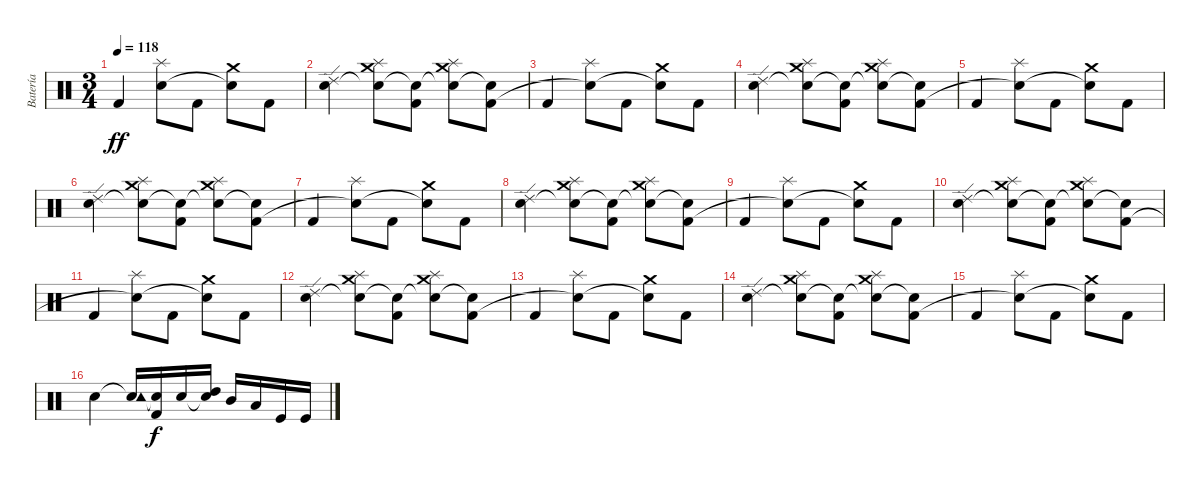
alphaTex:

\track ("Batería" "Batería") {instrument percussion}
\staff {score}
\articulation defaults
\ts (3 4)
\tempo 118
\clef neutral
\ks c "Kick (hit) 2".4{dy ff volume 16}
("Splash (hit)" "Snare (hit)"{t}).8 "Kick (hit) 2".8 ("Crash medium (hit)" "Snare (hit)"{t}).8 "Kick (hit) 2".8 |
("Snare (hit) 2" "Ride (edge) 2").4 ("Snare (hit)"{t} "Splash (hit)" "Crash medium (hit)").8 ("Snare (hit)"{t} "Kick (hit) 2").8 ("Snare (hit)"{t} "Crash medium (hit)" "Splash (hit)").8 ("Snare (hit)"{t} "Kick (hit) 2").8 |
"Kick (hit) 2".4{volume 16} ("Splash (hit)" "Snare (hit)"{t}).8 "Kick (hit) 2".8 ("Crash medium (hit)" "Snare (hit)"{t}).8 "Kick (hit) 2".8 |
("Snare (hit) 2" "Ride (edge) 2").4 ("Snare (hit)"{t} "Splash (hit)" "Crash medium (hit)").8 ("Snare (hit)"{t} "Kick (hit) 2").8 ("Snare (hit)"{t} "Crash medium (hit)" "Splash (hit)").8 ("Snare (hit)"{t} "Kick (hit) 2").8 |
"Kick (hit) 2".4{volume 16} ("Splash (hit)" "Snare (hit)"{t}).8 "Kick (hit) 2".8 ("Crash medium (hit)" "Snare (hit)"{t}).8 "Kick (hit) 2".8 |
("Snare (hit) 2" "Ride (edge) 2").4 ("Snare (hit)"{t} "Splash (hit)" "Crash medium (hit)").8 ("Snare (hit)"{t} "Kick (hit) 2").8 ("Snare (hit)"{t} "Crash medium (hit)" "Splash (hit)").8 ("Snare (hit)"{t} "Kick (hit) 2").8 |
"Kick (hit) 2".4{volume 16} ("Splash (hit)" "Snare (hit)"{t}).8 "Kick (hit) 2".8 ("Crash medium (hit)" "Snare (hit)"{t}).8 "Kick (hit) 2".8 |
("Snare (hit) 2" "Ride (edge) 2").4 ("Snare (hit)"{t} "Splash (hit)" "Crash medium (hit)").8 ("Snare (hit)"{t} "Kick (hit) 2").8 ("Snare (hit)"{t} "Crash medium (hit)" "Splash (hit)").8 ("Snare (hit)"{t} "Kick (hit) 2").8 |
"Kick (hit) 2".4{volume 16} ("Splash (hit)" "Snare (hit)"{t}).8 "Kick (hit) 2".8 ("Crash medium (hit)" "Snare (hit)"{t}).8 "Kick (hit) 2".8 |
("Snare (hit) 2" "Ride (edge) 2").4 ("Snare (hit)"{t} "Splash (hit)" "Crash medium (hit)").8 ("Snare (hit)"{t} "Kick (hit) 2").8 ("Snare (hit)"{t} "Crash medium (hit)" "Splash (hit)").8 ("Snare (hit)"{t} "Kick (hit) 2").8 |
"Kick (hit) 2".4{volume 16} ("Splash (hit)" "Snare (hit)"{t}).8 "Kick (hit) 2".8 ("Crash medium (hit)" "Snare (hit)"{t}).8 "Kick (hit) 2".8 |
("Snare (hit) 2" "Ride (edge) 2").4 ("Snare (hit)"{t} "Splash (hit)" "Crash medium (hit)").8 ("Snare (hit)"{t} "Kick (hit) 2").8 ("Snare (hit)"{t} "Crash medium (hit)" "Splash (hit)").8 ("Snare (hit)"{t} "Kick (hit) 2").8 |
"Kick (hit) 2".4{volume 16} ("Splash (hit)" "Snare (hit)"{t}).8 "Kick (hit) 2".8 ("Crash medium (hit)" "Snare (hit)"{t}).8 "Kick (hit) 2".8 |
("Snare (hit) 2" "Ride (edge) 2").4 ("Snare (hit)"{t} "Splash (hit)" "Crash medium (hit)").8 ("Snare (hit)"{t} "Kick (hit) 2").8 ("Snare (hit)"{t} "Crash medium (hit)" "Splash (hit)").8 ("Snare (hit)"{t} "Kick (hit) 2").8 |
"Kick (hit) 2".4 ("Splash (hit)" "Snare (hit)"{t}).8 "Kick (hit) 2".8 ("Crash medium (hit)" "Snare (hit)"{t}).8 "Kick (hit) 2".8 |
"Snare (hit) 2".4 ("Snare (hit)"{t} "Tambourine (hit)").16 ("Snare (hit)"{t} "Kick (hit) 2").16{dy f} "Snare (hit) 2".16 ("Snare (hit)"{t} "High Tom (hit)").16 "Mid Tom (hit)".16 "Low Tom (hit)".16 "Kick (hit)".16 "Kick (hit)".16
